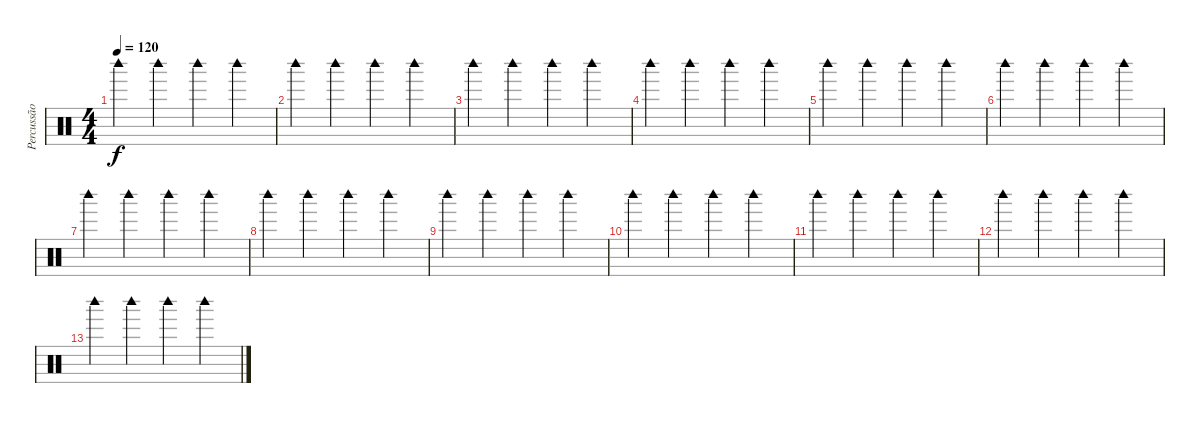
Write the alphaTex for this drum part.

\track ("Percussão" "Percussão") {instrument percussion}
\staff {score}
\articulation defaults
\ts (4 4)
\tempo 120
\clef neutral
\ks c "Woodblock high (hit)".4{dy f} "Woodblock high (hit)".4 "Woodblock high (hit)".4 "Woodblock high (hit)".4
|
"Woodblock high (hit)".4 "Woodblock high (hit)".4 "Woodblock high (hit)".4 "Woodblock high (hit)".4 |
"Woodblock high (hit)".4 "Woodblock high (hit)".4 "Woodblock high (hit)".4 "Woodblock high (hit)".4 |
"Woodblock high (hit)".4 "Woodblock high (hit)".4 "Woodblock high (hit)".4 "Woodblock high (hit)".4 |
"Woodblock high (hit)".4 "Woodblock high (hit)".4 "Woodblock high (hit)".4 "Woodblock high (hit)".4 |
"Woodblock high (hit)".4 "Woodblock high (hit)".4 "Woodblock high (hit)".4 "Woodblock high (hit)".4 |
"Woodblock high (hit)".4 "Woodblock high (hit)".4 "Woodblock high (hit)".4 "Woodblock high (hit)".4 |
"Woodblock high (hit)".4 "Woodblock high (hit)".4 "Woodblock high (hit)".4 "Woodblock high (hit)".4 |
"Woodblock high (hit)".4 "Woodblock high (hit)".4 "Woodblock high (hit)".4 "Woodblock high (hit)".4 |
"Woodblock high (hit)".4 "Woodblock high (hit)".4 "Woodblock high (hit)".4 "Woodblock high (hit)".4 |
"Woodblock high (hit)".4 "Woodblock high (hit)".4 "Woodblock high (hit)".4 "Woodblock high (hit)".4 |
"Woodblock high (hit)".4 "Woodblock high (hit)".4 "Woodblock high (hit)".4 "Woodblock high (hit)".4 |
"Woodblock high (hit)".4 "Woodblock high (hit)".4 "Woodblock high (hit)".4 "Woodblock high (hit)".4
